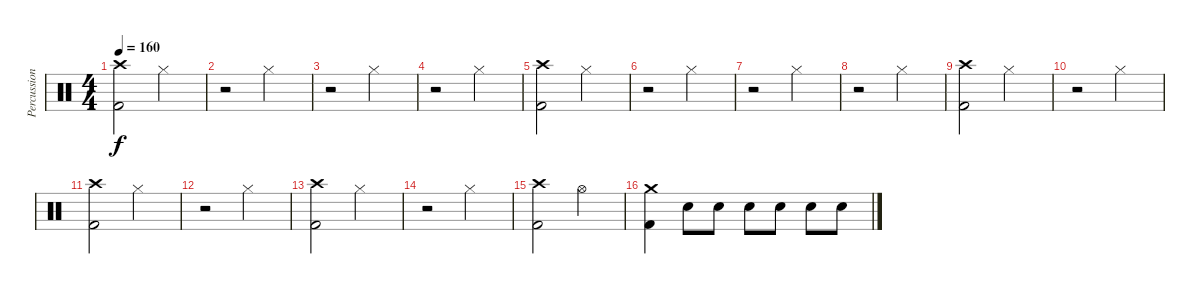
\track ("Percussion" "Percussion") {instrument percussion}
\staff {score}
\articulation defaults
\ts (4 4)
\section ("" "")
\tempo 160
\clef neutral
\ks c
("Crash high (hit)" "Kick (hit) 2").2{dy f} "Hi-Hat (closed)".2 |
r.2 "Hi-Hat (closed)".2 |
r.2 "Hi-Hat (closed)".2 |
r.2 "Hi-Hat (closed)".2 |
("Crash high (hit)" "Kick (hit) 2").2 "Hi-Hat (closed)".2 |
r.2 "Hi-Hat (closed)".2 |
r.2 "Hi-Hat (closed)".2 |
r.2 "Hi-Hat (closed)".2 |
("Crash high (hit)" "Kick (hit) 2").2 "Hi-Hat (closed)".2 |
r.2 "Hi-Hat (closed)".2 |
("Crash high (hit)" "Kick (hit) 2").2 "Hi-Hat (closed)".2 |
r.2 "Hi-Hat (closed)".2 |
("Crash high (hit)" "Kick (hit) 2").2 "Hi-Hat (closed)".2 |
r.2 "Hi-Hat (closed)".2 |
("Crash high (hit)" "Kick (hit) 2").2 "Hi-Hat (open)".2 |
("Crash medium (hit)" "Kick (hit) 2").4 "Snare (hit) 2".8 "Snare (hit) 2".8 "Snare (hit) 2".8 "Snare (hit) 2".8 "Snare (hit) 2".8 "Snare (hit) 2".8
